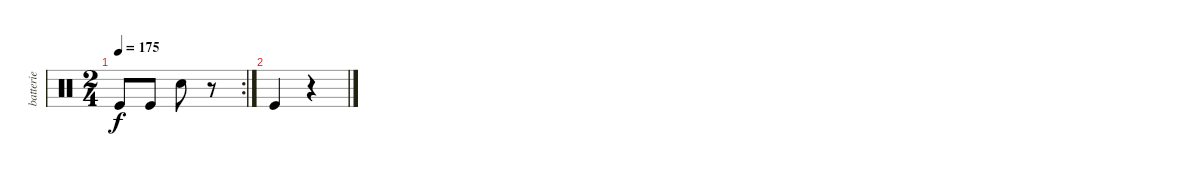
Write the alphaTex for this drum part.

\track ("batterie" "batterie") {instrument percussion}
\staff {score}
\articulation defaults
\rc 2
\ts (2 4)
\tempo 175
\clef neutral
\ks c "Kick (hit)".8{dy f} "Kick (hit)".8 "Snare (hit) 2".8
r.8 |
"Kick (hit)".4 r.4
